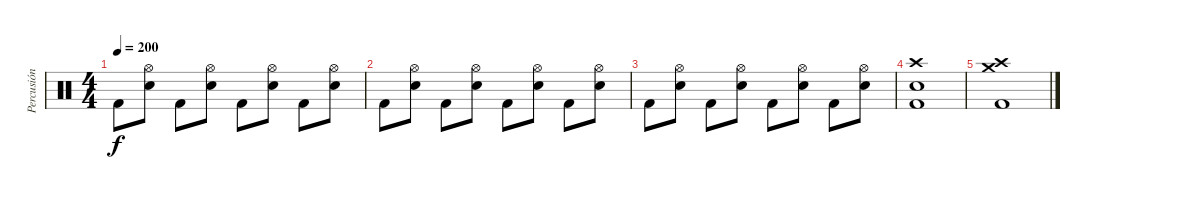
\track ("Percusión" "Percusión") {instrument percussion}
\staff {score}
\articulation defaults
\ts (4 4)
\tempo 200
\clef neutral
\ks c "Kick (hit) 2".8{dy f}
("Hi-Hat (open)" "Electric Snare (hit)").8 "Kick (hit) 2".8 ("Hi-Hat (open)" "Electric Snare (hit)").8 "Kick (hit) 2".8 ("Hi-Hat (open)" "Electric Snare (hit)").8 "Kick (hit) 2".8 ("Hi-Hat (open)" "Electric Snare (hit)").8 |
"Kick (hit) 2".8 ("Hi-Hat (open)" "Electric Snare (hit)").8 "Kick (hit) 2".8 ("Hi-Hat (open)" "Electric Snare (hit)").8 "Kick (hit) 2".8 ("Hi-Hat (open)" "Electric Snare (hit)").8 "Kick (hit) 2".8 ("Hi-Hat (open)" "Electric Snare (hit)").8 |
"Kick (hit) 2".8 ("Hi-Hat (open)" "Electric Snare (hit)").8 "Kick (hit) 2".8 ("Hi-Hat (open)" "Electric Snare (hit)").8 "Kick (hit) 2".8 ("Hi-Hat (open)" "Electric Snare (hit)").8 "Kick (hit) 2".8 ("Hi-Hat (open)" "Electric Snare (hit)").8 |
("Crash high (hit)" "Kick (hit) 2" "Electric Snare (hit)").1 |
("Crash high (hit)" "Crash medium (hit)" "Kick (hit) 2").1
